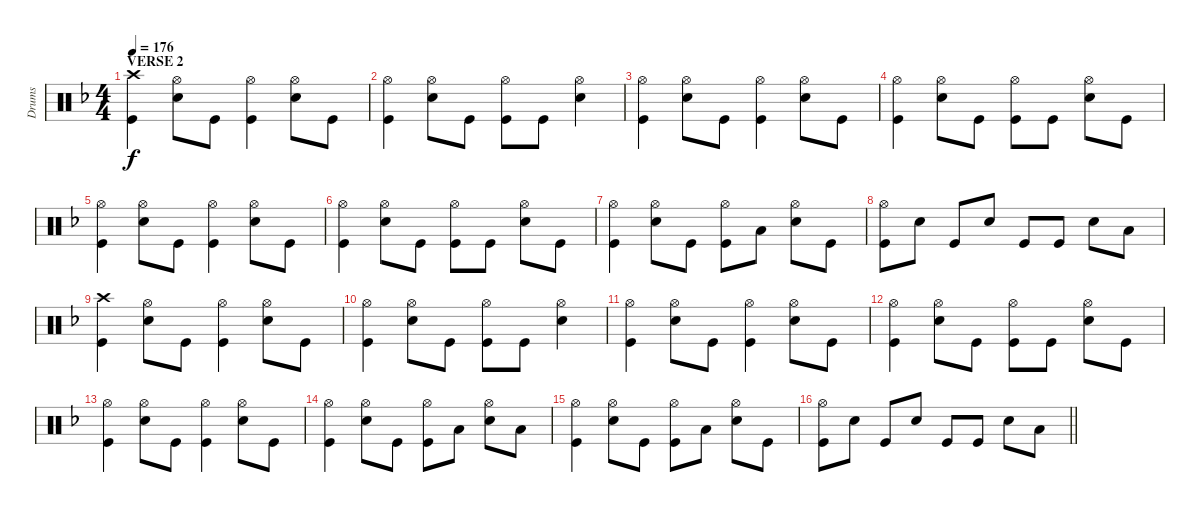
\track ("Drums" "Drums") {instrument percussion}
\staff {score}
\articulation defaults
\ts (4 4)
\section ("" "VERSE 2")
\tempo 176
\clef neutral
\ks f
("Crash high (hit)" "Kick (hit)").4{dy f} ("Hi-Hat (open)" "Snare (hit) 2").8 "Kick (hit)".8 ("Hi-Hat (open)" "Kick (hit)").4 ("Hi-Hat (open)" "Snare (hit) 2").8 "Kick (hit)".8 |
("Hi-Hat (open)" "Kick (hit)").4 ("Hi-Hat (open)" "Snare (hit) 2").8 "Kick (hit)".8 ("Hi-Hat (open)" "Kick (hit)").8 "Kick (hit)".8 ("Hi-Hat (open)" "Snare (hit) 2").4 |
("Hi-Hat (open)" "Kick (hit)").4 ("Hi-Hat (open)" "Snare (hit) 2").8 "Kick (hit)".8 ("Hi-Hat (open)" "Kick (hit)").4 ("Hi-Hat (open)" "Snare (hit) 2").8 "Kick (hit)".8 |
("Hi-Hat (open)" "Kick (hit)").4 ("Hi-Hat (open)" "Snare (hit) 2").8 "Kick (hit)".8 ("Hi-Hat (open)" "Kick (hit)").8 "Kick (hit)".8 ("Hi-Hat (open)" "Snare (hit) 2").8 "Kick (hit)".8 |
("Hi-Hat (open)" "Kick (hit)").4 ("Hi-Hat (open)" "Snare (hit) 2").8 "Kick (hit)".8 ("Hi-Hat (open)" "Kick (hit)").4 ("Hi-Hat (open)" "Snare (hit) 2").8 "Kick (hit)".8 |
("Hi-Hat (open)" "Kick (hit)").4 ("Hi-Hat (open)" "Snare (hit) 2").8 "Kick (hit)".8 ("Hi-Hat (open)" "Kick (hit)").8 "Kick (hit)".8 ("Hi-Hat (open)" "Snare (hit) 2").8 "Kick (hit)".8 |
("Hi-Hat (open)" "Kick (hit)").4 ("Hi-Hat (open)" "Snare (hit) 2").8 "Kick (hit)".8 ("Hi-Hat (open)" "Kick (hit)").8 "Low Floor Tom (hit)".8 ("Hi-Hat (open)" "Snare (hit) 2").8 "Kick (hit)".8 |
("Hi-Hat (open)" "Kick (hit)").8 "Snare (hit) 2".8 "Kick (hit)".8 "Snare (hit) 2".8 "Kick (hit)".8 "Kick (hit)".8 "Snare (hit) 2".8 "Low Floor Tom (hit)".8 |
("Crash high (hit)" "Kick (hit)").4 ("Hi-Hat (open)" "Snare (hit) 2").8 "Kick (hit)".8 ("Hi-Hat (open)" "Kick (hit)").4 ("Hi-Hat (open)" "Snare (hit) 2").8 "Kick (hit)".8 |
("Hi-Hat (open)" "Kick (hit)").4 ("Hi-Hat (open)" "Snare (hit) 2").8 "Kick (hit)".8 ("Hi-Hat (open)" "Kick (hit)").8 "Kick (hit)".8 ("Hi-Hat (open)" "Snare (hit) 2").4 |
("Hi-Hat (open)" "Kick (hit)").4 ("Hi-Hat (open)" "Snare (hit) 2").8 "Kick (hit)".8 ("Hi-Hat (open)" "Kick (hit)").4 ("Hi-Hat (open)" "Snare (hit) 2").8 "Kick (hit)".8 |
("Hi-Hat (open)" "Kick (hit)").4 ("Hi-Hat (open)" "Snare (hit) 2").8 "Kick (hit)".8 ("Hi-Hat (open)" "Kick (hit)").8 "Kick (hit)".8 ("Hi-Hat (open)" "Snare (hit) 2").8 "Kick (hit)".8 |
("Hi-Hat (open)" "Kick (hit)").4 ("Hi-Hat (open)" "Snare (hit) 2").8 "Kick (hit)".8 ("Hi-Hat (open)" "Kick (hit)").4 ("Hi-Hat (open)" "Snare (hit) 2").8 "Kick (hit)".8 |
("Hi-Hat (open)" "Kick (hit)").4 ("Hi-Hat (open)" "Snare (hit) 2").8 "Kick (hit)".8 ("Hi-Hat (open)" "Kick (hit)").8 "Low Floor Tom (hit)".8 ("Hi-Hat (open)" "Snare (hit) 2").8 "Low Floor Tom (hit)".8 |
("Hi-Hat (open)" "Kick (hit)").4 ("Hi-Hat (open)" "Snare (hit) 2").8 "Kick (hit)".8 ("Hi-Hat (open)" "Kick (hit)").8 "Low Floor Tom (hit)".8 ("Hi-Hat (open)" "Snare (hit) 2").8 "Kick (hit)".8 |
\barLineRight lightlight
("Hi-Hat (open)" "Kick (hit)").8 "Snare (hit) 2".8 "Kick (hit)".8 "Snare (hit) 2".8 "Kick (hit)".8 "Kick (hit)".8 "Snare (hit) 2".8 "Low Floor Tom (hit)".8
